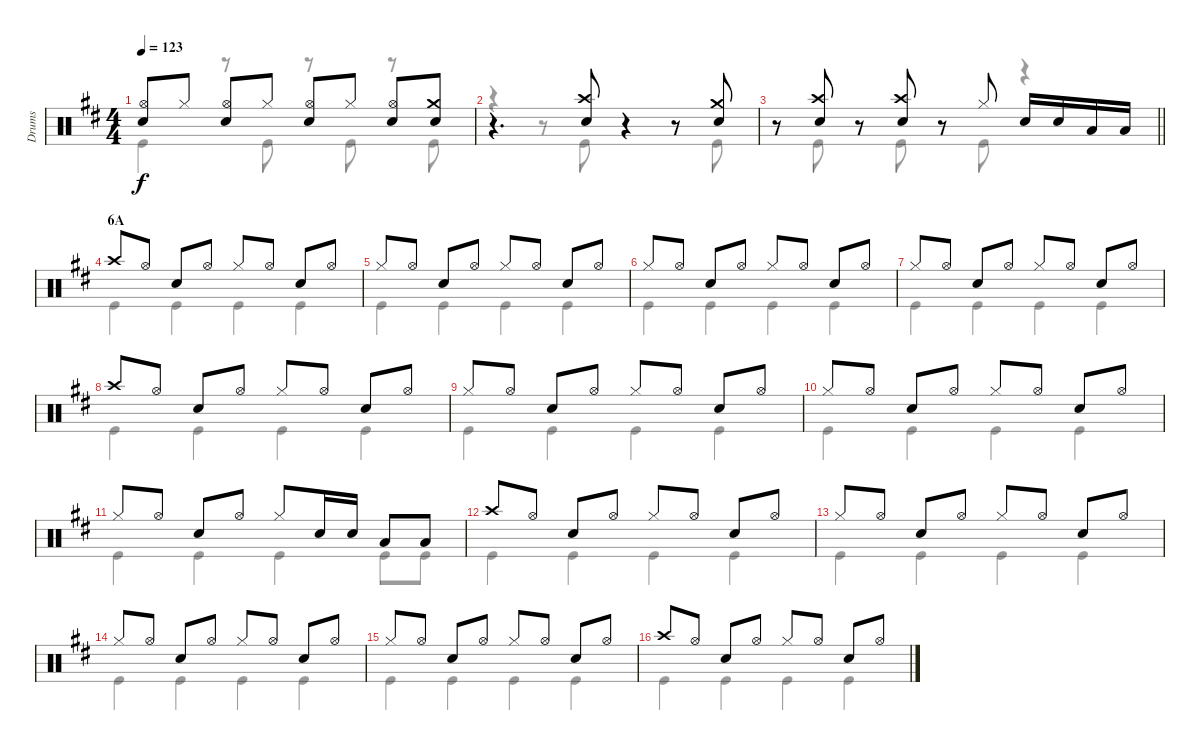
\track ("Drums" "Drums") {instrument percussion}
\staff {score}
\articulation defaults
\voice
\ts (4 4)
\tempo 123
\clef neutral
\ks d
("Hi-Hat (open)" "Snare (hit) 2").8{dy f} "Hi-Hat (closed)".8 ("Hi-Hat (open)" "Snare (hit) 2").8 "Hi-Hat (closed)".8 ("Hi-Hat (open)" "Snare (hit) 2").8 "Hi-Hat (closed)".8 ("Hi-Hat (open)" "Snare (hit) 2").8 ("Crash medium (hit)" "Snare (hit) 2").8 |
r.4{d} ("Crash high (hit)" "Snare (hit) 2").8 r.4 r.8 ("Crash medium (hit)" "Snare (hit) 2").8 |
\barLineRight lightlight
r.8 ("Crash high (hit)" "Snare (hit) 2").8 r.8 ("Crash high (hit)" "Snare (hit) 2").8 r.8 "Hi-Hat (closed)".8 "Snare (hit) 2".16 "Snare (hit) 2".16 "Low Tom (hit)".16 "Low Tom (hit)".16 |
\section ("" "6A")
"Crash high (hit)".8 "Hi-Hat (open)".8 "Snare (hit) 2".8 "Hi-Hat (open)".8 "Hi-Hat (closed)".8 "Hi-Hat (open)".8 "Snare (hit) 2".8 "Hi-Hat (open)".8 |
"Hi-Hat (closed)".8 "Hi-Hat (open)".8 "Snare (hit) 2".8 "Hi-Hat (open)".8 "Hi-Hat (closed)".8 "Hi-Hat (open)".8 "Snare (hit) 2".8 "Hi-Hat (open)".8 |
"Hi-Hat (closed)".8 "Hi-Hat (open)".8 "Snare (hit) 2".8 "Hi-Hat (open)".8 "Hi-Hat (closed)".8 "Hi-Hat (open)".8 "Snare (hit) 2".8 "Hi-Hat (open)".8 |
"Hi-Hat (closed)".8 "Hi-Hat (open)".8 "Snare (hit) 2".8 "Hi-Hat (open)".8 "Hi-Hat (closed)".8 "Hi-Hat (open)".8 "Snare (hit) 2".8 "Hi-Hat (open)".8 |
"Crash high (hit)".8 "Hi-Hat (open)".8 "Snare (hit) 2".8 "Hi-Hat (open)".8 "Hi-Hat (closed)".8 "Hi-Hat (open)".8 "Snare (hit) 2".8 "Hi-Hat (open)".8 |
"Hi-Hat (closed)".8 "Hi-Hat (open)".8 "Snare (hit) 2".8 "Hi-Hat (open)".8 "Hi-Hat (closed)".8 "Hi-Hat (open)".8 "Snare (hit) 2".8 "Hi-Hat (open)".8 |
"Hi-Hat (closed)".8 "Hi-Hat (open)".8 "Snare (hit) 2".8 "Hi-Hat (open)".8 "Hi-Hat (closed)".8 "Hi-Hat (open)".8 "Snare (hit) 2".8 "Hi-Hat (open)".8 |
"Hi-Hat (closed)".8 "Hi-Hat (open)".8 "Snare (hit) 2".8 "Hi-Hat (open)".8 "Hi-Hat (closed)".8 "Snare (hit) 2".16 "Snare (hit) 2".16 "Low Tom (hit)".8 "Low Tom (hit)".8 |
"Crash high (hit)".8 "Hi-Hat (open)".8 "Snare (hit) 2".8 "Hi-Hat (open)".8 "Hi-Hat (closed)".8 "Hi-Hat (open)".8 "Snare (hit) 2".8 "Hi-Hat (open)".8 |
"Hi-Hat (closed)".8 "Hi-Hat (open)".8 "Snare (hit) 2".8 "Hi-Hat (open)".8 "Hi-Hat (closed)".8 "Hi-Hat (open)".8 "Snare (hit) 2".8 "Hi-Hat (open)".8 |
"Hi-Hat (closed)".8 "Hi-Hat (open)".8 "Snare (hit) 2".8 "Hi-Hat (open)".8 "Hi-Hat (closed)".8 "Hi-Hat (open)".8 "Snare (hit) 2".8 "Hi-Hat (open)".8 |
"Hi-Hat (closed)".8 "Hi-Hat (open)".8 "Snare (hit) 2".8 "Hi-Hat (open)".8 "Hi-Hat (closed)".8 "Hi-Hat (open)".8 "Snare (hit) 2".8 "Hi-Hat (open)".8 |
"Crash high (hit)".8 "Hi-Hat (open)".8 "Snare (hit) 2".8 "Hi-Hat (open)".8 "Hi-Hat (closed)".8 "Hi-Hat (open)".8 "Snare (hit) 2".8 "Hi-Hat (open)".8
\voice
\clef neutral
\ottava regular
\simile none
\ks d "Kick (hit)".4{dy f}
r.8 "Kick (hit)".8 r.8 "Kick (hit)".8 r.8 "Kick (hit)".8 |
r.4 r.8 "Kick (hit)".8 r.4 r.8 "Kick (hit)".8 |
\barLineRight lightlight
r.8 "Kick (hit)".8 r.8 "Kick (hit)".8 r.8 "Kick (hit)".8 r.4 |
"Kick (hit)".4 "Kick (hit)".4 "Kick (hit)".4 "Kick (hit)".4 |
"Kick (hit)".4 "Kick (hit)".4 "Kick (hit)".4 "Kick (hit)".4 |
"Kick (hit)".4 "Kick (hit)".4 "Kick (hit)".4 "Kick (hit)".4 |
"Kick (hit)".4 "Kick (hit)".4 "Kick (hit)".4 "Kick (hit)".4 |
"Kick (hit)".4 "Kick (hit)".4 "Kick (hit)".4 "Kick (hit)".4 |
"Kick (hit)".4 "Kick (hit)".4 "Kick (hit)".4 "Kick (hit)".4 |
"Kick (hit)".4 "Kick (hit)".4 "Kick (hit)".4 "Kick (hit)".4 |
"Kick (hit)".4 "Kick (hit)".4 "Kick (hit)".4 "Kick (hit)".8 "Kick (hit)".8 |
"Kick (hit)".4 "Kick (hit)".4 "Kick (hit)".4 "Kick (hit)".4 |
"Kick (hit)".4 "Kick (hit)".4 "Kick (hit)".4 "Kick (hit)".4 |
"Kick (hit)".4 "Kick (hit)".4 "Kick (hit)".4 "Kick (hit)".4 |
"Kick (hit)".4 "Kick (hit)".4 "Kick (hit)".4 "Kick (hit)".4 |
"Kick (hit)".4 "Kick (hit)".4 "Kick (hit)".4 "Kick (hit)".4
